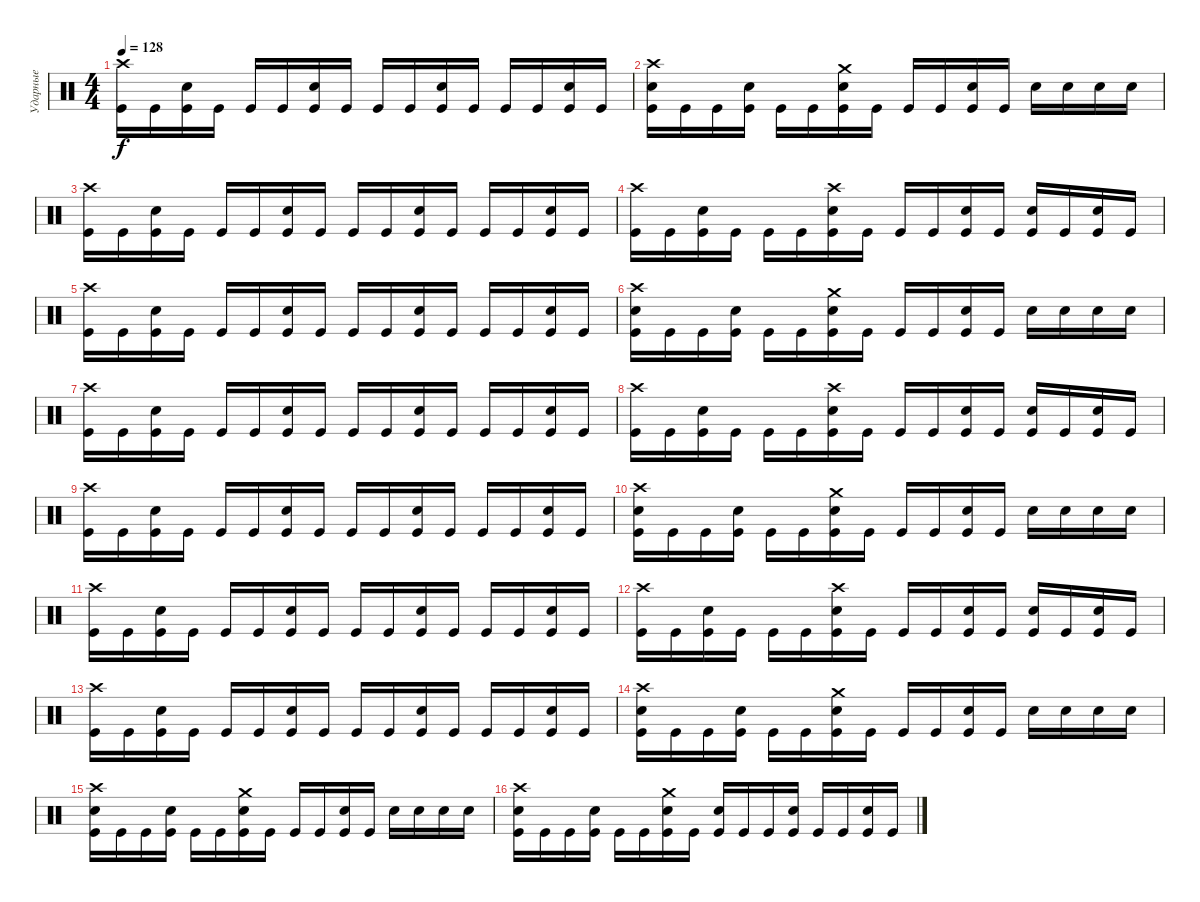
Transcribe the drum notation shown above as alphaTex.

\track ("Ударные" "Ударные") {instrument percussion}
\staff {score}
\articulation defaults
\ts (4 4)
\tempo 128
\clef neutral
\ks c
("Crash high (hit)" "Kick (hit)").16{dy f} "Kick (hit)".16 ("Electric Snare (hit)" "Kick (hit)").16 "Kick (hit)".16 "Kick (hit)".16 "Kick (hit)".16 ("Electric Snare (hit)" "Kick (hit)").16 "Kick (hit)".16 "Kick (hit)".16 "Kick (hit)".16 ("Electric Snare (hit)" "Kick (hit)").16 "Kick (hit)".16 "Kick (hit)".16 "Kick (hit)".16 ("Electric Snare (hit)" "Kick (hit)").16 "Kick (hit)".16 |
("Crash high (hit)" "Electric Snare (hit)" "Kick (hit)").16 "Kick (hit)".16 "Kick (hit)".16 ("Electric Snare (hit)" "Kick (hit)").16 "Kick (hit)".16 "Kick (hit)".16 ("Crash medium (hit)" "Electric Snare (hit)" "Kick (hit)").16 "Kick (hit)".16 "Kick (hit)".16 "Kick (hit)".16 ("Electric Snare (hit)" "Kick (hit)").16 "Kick (hit)".16 "Electric Snare (hit)".16 "Electric Snare (hit)".16 "Electric Snare (hit)".16 "Electric Snare (hit)".16 |
("Crash high (hit)" "Kick (hit)").16 "Kick (hit)".16 ("Electric Snare (hit)" "Kick (hit)").16 "Kick (hit)".16 "Kick (hit)".16 "Kick (hit)".16 ("Electric Snare (hit)" "Kick (hit)").16 "Kick (hit)".16 "Kick (hit)".16 "Kick (hit)".16 ("Electric Snare (hit)" "Kick (hit)").16 "Kick (hit)".16 "Kick (hit)".16 "Kick (hit)".16 ("Electric Snare (hit)" "Kick (hit)").16 "Kick (hit)".16 |
("Crash high (hit)" "Kick (hit)").16 "Kick (hit)".16 ("Electric Snare (hit)" "Kick (hit)").16 "Kick (hit)".16 "Kick (hit)".16 "Kick (hit)".16 ("Crash high (hit)" "Electric Snare (hit)" "Kick (hit)").16 "Kick (hit)".16 "Kick (hit)".16 "Kick (hit)".16 ("Electric Snare (hit)" "Kick (hit)").16 "Kick (hit)".16 ("Electric Snare (hit)" "Kick (hit)").16 "Kick (hit)".16 ("Electric Snare (hit)" "Kick (hit)").16 "Kick (hit)".16 |
("Crash high (hit)" "Kick (hit)").16 "Kick (hit)".16 ("Electric Snare (hit)" "Kick (hit)").16 "Kick (hit)".16 "Kick (hit)".16 "Kick (hit)".16 ("Electric Snare (hit)" "Kick (hit)").16 "Kick (hit)".16 "Kick (hit)".16 "Kick (hit)".16 ("Electric Snare (hit)" "Kick (hit)").16 "Kick (hit)".16 "Kick (hit)".16 "Kick (hit)".16 ("Electric Snare (hit)" "Kick (hit)").16 "Kick (hit)".16 |
("Crash high (hit)" "Electric Snare (hit)" "Kick (hit)").16 "Kick (hit)".16 "Kick (hit)".16 ("Electric Snare (hit)" "Kick (hit)").16 "Kick (hit)".16 "Kick (hit)".16 ("Crash medium (hit)" "Electric Snare (hit)" "Kick (hit)").16 "Kick (hit)".16 "Kick (hit)".16 "Kick (hit)".16 ("Electric Snare (hit)" "Kick (hit)").16 "Kick (hit)".16 "Electric Snare (hit)".16 "Electric Snare (hit)".16 "Electric Snare (hit)".16 "Electric Snare (hit)".16 |
("Crash high (hit)" "Kick (hit)").16 "Kick (hit)".16 ("Electric Snare (hit)" "Kick (hit)").16 "Kick (hit)".16 "Kick (hit)".16 "Kick (hit)".16 ("Electric Snare (hit)" "Kick (hit)").16 "Kick (hit)".16 "Kick (hit)".16 "Kick (hit)".16 ("Electric Snare (hit)" "Kick (hit)").16 "Kick (hit)".16 "Kick (hit)".16 "Kick (hit)".16 ("Electric Snare (hit)" "Kick (hit)").16 "Kick (hit)".16 |
("Crash high (hit)" "Kick (hit)").16 "Kick (hit)".16 ("Electric Snare (hit)" "Kick (hit)").16 "Kick (hit)".16 "Kick (hit)".16 "Kick (hit)".16 ("Crash high (hit)" "Electric Snare (hit)" "Kick (hit)").16 "Kick (hit)".16 "Kick (hit)".16 "Kick (hit)".16 ("Electric Snare (hit)" "Kick (hit)").16 "Kick (hit)".16 ("Electric Snare (hit)" "Kick (hit)").16 "Kick (hit)".16 ("Electric Snare (hit)" "Kick (hit)").16 "Kick (hit)".16 |
("Crash high (hit)" "Kick (hit)").16 "Kick (hit)".16 ("Electric Snare (hit)" "Kick (hit)").16 "Kick (hit)".16 "Kick (hit)".16 "Kick (hit)".16 ("Electric Snare (hit)" "Kick (hit)").16 "Kick (hit)".16 "Kick (hit)".16 "Kick (hit)".16 ("Electric Snare (hit)" "Kick (hit)").16 "Kick (hit)".16 "Kick (hit)".16 "Kick (hit)".16 ("Electric Snare (hit)" "Kick (hit)").16 "Kick (hit)".16 |
("Crash high (hit)" "Electric Snare (hit)" "Kick (hit)").16 "Kick (hit)".16 "Kick (hit)".16 ("Electric Snare (hit)" "Kick (hit)").16 "Kick (hit)".16 "Kick (hit)".16 ("Crash medium (hit)" "Electric Snare (hit)" "Kick (hit)").16 "Kick (hit)".16 "Kick (hit)".16 "Kick (hit)".16 ("Electric Snare (hit)" "Kick (hit)").16 "Kick (hit)".16 "Electric Snare (hit)".16 "Electric Snare (hit)".16 "Electric Snare (hit)".16 "Electric Snare (hit)".16 |
("Crash high (hit)" "Kick (hit)").16 "Kick (hit)".16 ("Electric Snare (hit)" "Kick (hit)").16 "Kick (hit)".16 "Kick (hit)".16 "Kick (hit)".16 ("Electric Snare (hit)" "Kick (hit)").16 "Kick (hit)".16 "Kick (hit)".16 "Kick (hit)".16 ("Electric Snare (hit)" "Kick (hit)").16 "Kick (hit)".16 "Kick (hit)".16 "Kick (hit)".16 ("Electric Snare (hit)" "Kick (hit)").16 "Kick (hit)".16 |
("Crash high (hit)" "Kick (hit)").16 "Kick (hit)".16 ("Electric Snare (hit)" "Kick (hit)").16 "Kick (hit)".16 "Kick (hit)".16 "Kick (hit)".16 ("Crash high (hit)" "Electric Snare (hit)" "Kick (hit)").16 "Kick (hit)".16 "Kick (hit)".16 "Kick (hit)".16 ("Electric Snare (hit)" "Kick (hit)").16 "Kick (hit)".16 ("Electric Snare (hit)" "Kick (hit)").16 "Kick (hit)".16 ("Electric Snare (hit)" "Kick (hit)").16 "Kick (hit)".16 |
("Crash high (hit)" "Kick (hit)").16 "Kick (hit)".16 ("Electric Snare (hit)" "Kick (hit)").16 "Kick (hit)".16 "Kick (hit)".16 "Kick (hit)".16 ("Electric Snare (hit)" "Kick (hit)").16 "Kick (hit)".16 "Kick (hit)".16 "Kick (hit)".16 ("Electric Snare (hit)" "Kick (hit)").16 "Kick (hit)".16 "Kick (hit)".16 "Kick (hit)".16 ("Electric Snare (hit)" "Kick (hit)").16 "Kick (hit)".16 |
("Crash high (hit)" "Electric Snare (hit)" "Kick (hit)").16 "Kick (hit)".16 "Kick (hit)".16 ("Electric Snare (hit)" "Kick (hit)").16 "Kick (hit)".16 "Kick (hit)".16 ("Crash medium (hit)" "Electric Snare (hit)" "Kick (hit)").16 "Kick (hit)".16 "Kick (hit)".16 "Kick (hit)".16 ("Electric Snare (hit)" "Kick (hit)").16 "Kick (hit)".16 "Electric Snare (hit)".16 "Electric Snare (hit)".16 "Electric Snare (hit)".16 "Electric Snare (hit)".16 |
("Crash high (hit)" "Electric Snare (hit)" "Kick (hit)").16 "Kick (hit)".16 "Kick (hit)".16 ("Electric Snare (hit)" "Kick (hit)").16 "Kick (hit)".16 "Kick (hit)".16 ("Crash medium (hit)" "Electric Snare (hit)" "Kick (hit)").16 "Kick (hit)".16 "Kick (hit)".16 "Kick (hit)".16 ("Electric Snare (hit)" "Kick (hit)").16 "Kick (hit)".16 "Electric Snare (hit)".16 "Electric Snare (hit)".16 "Electric Snare (hit)".16 "Electric Snare (hit)".16 |
("Crash high (hit)" "Electric Snare (hit)" "Kick (hit)").16 "Kick (hit)".16 "Kick (hit)".16 ("Electric Snare (hit)" "Kick (hit)").16 "Kick (hit)".16 "Kick (hit)".16 ("Crash medium (hit)" "Electric Snare (hit)" "Kick (hit)").16 "Kick (hit)".16 ("Electric Snare (hit)" "Kick (hit)").16 "Kick (hit)".16 "Kick (hit)".16 ("Electric Snare (hit)" "Kick (hit)").16 "Kick (hit)".16 "Kick (hit)".16 ("Electric Snare (hit)" "Kick (hit)").16 "Kick (hit)".16
